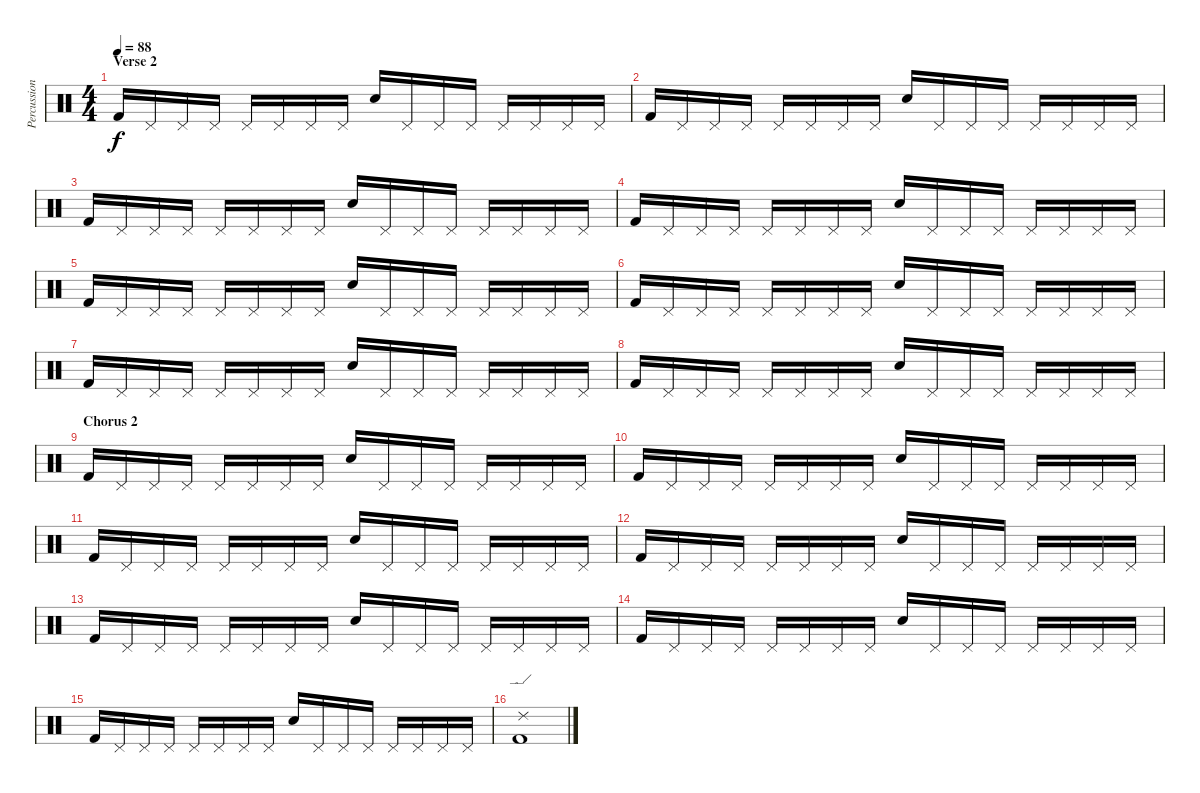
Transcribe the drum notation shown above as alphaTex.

\track ("Percussion" "Percussion") {instrument percussion}
\staff {score}
\articulation defaults
\ts (4 4)
\section ("" "Verse 2")
\tempo 88
\clef neutral
\ks c "Kick (hit) 2".16{dy f} "Pedal Hi-Hat (hit)".16 "Pedal Hi-Hat (hit)".16 "Pedal Hi-Hat (hit)".16 "Pedal Hi-Hat (hit)".16 "Pedal Hi-Hat (hit)".16 "Pedal Hi-Hat (hit)".16 "Pedal Hi-Hat (hit)".16 "Electric Snare (hit)".16 "Pedal Hi-Hat (hit)".16 "Pedal Hi-Hat (hit)".16 "Pedal Hi-Hat (hit)".16 "Pedal Hi-Hat (hit)".16 "Pedal Hi-Hat (hit)".16 "Pedal Hi-Hat (hit)".16 "Pedal Hi-Hat (hit)".16
|
"Kick (hit) 2".16 "Pedal Hi-Hat (hit)".16 "Pedal Hi-Hat (hit)".16 "Pedal Hi-Hat (hit)".16 "Pedal Hi-Hat (hit)".16 "Pedal Hi-Hat (hit)".16 "Pedal Hi-Hat (hit)".16 "Pedal Hi-Hat (hit)".16 "Electric Snare (hit)".16 "Pedal Hi-Hat (hit)".16 "Pedal Hi-Hat (hit)".16 "Pedal Hi-Hat (hit)".16 "Pedal Hi-Hat (hit)".16 "Pedal Hi-Hat (hit)".16 "Pedal Hi-Hat (hit)".16 "Pedal Hi-Hat (hit)".16 |
"Kick (hit) 2".16 "Pedal Hi-Hat (hit)".16 "Pedal Hi-Hat (hit)".16 "Pedal Hi-Hat (hit)".16 "Pedal Hi-Hat (hit)".16 "Pedal Hi-Hat (hit)".16 "Pedal Hi-Hat (hit)".16 "Pedal Hi-Hat (hit)".16 "Electric Snare (hit)".16 "Pedal Hi-Hat (hit)".16 "Pedal Hi-Hat (hit)".16 "Pedal Hi-Hat (hit)".16 "Pedal Hi-Hat (hit)".16 "Pedal Hi-Hat (hit)".16 "Pedal Hi-Hat (hit)".16 "Pedal Hi-Hat (hit)".16 |
"Kick (hit) 2".16 "Pedal Hi-Hat (hit)".16 "Pedal Hi-Hat (hit)".16 "Pedal Hi-Hat (hit)".16 "Pedal Hi-Hat (hit)".16 "Pedal Hi-Hat (hit)".16 "Pedal Hi-Hat (hit)".16 "Pedal Hi-Hat (hit)".16 "Electric Snare (hit)".16 "Pedal Hi-Hat (hit)".16 "Pedal Hi-Hat (hit)".16 "Pedal Hi-Hat (hit)".16 "Pedal Hi-Hat (hit)".16 "Pedal Hi-Hat (hit)".16 "Pedal Hi-Hat (hit)".16 "Pedal Hi-Hat (hit)".16 |
"Kick (hit) 2".16 "Pedal Hi-Hat (hit)".16 "Pedal Hi-Hat (hit)".16 "Pedal Hi-Hat (hit)".16 "Pedal Hi-Hat (hit)".16 "Pedal Hi-Hat (hit)".16 "Pedal Hi-Hat (hit)".16 "Pedal Hi-Hat (hit)".16 "Electric Snare (hit)".16 "Pedal Hi-Hat (hit)".16 "Pedal Hi-Hat (hit)".16 "Pedal Hi-Hat (hit)".16 "Pedal Hi-Hat (hit)".16 "Pedal Hi-Hat (hit)".16 "Pedal Hi-Hat (hit)".16 "Pedal Hi-Hat (hit)".16 |
"Kick (hit) 2".16 "Pedal Hi-Hat (hit)".16 "Pedal Hi-Hat (hit)".16 "Pedal Hi-Hat (hit)".16 "Pedal Hi-Hat (hit)".16 "Pedal Hi-Hat (hit)".16 "Pedal Hi-Hat (hit)".16 "Pedal Hi-Hat (hit)".16 "Electric Snare (hit)".16 "Pedal Hi-Hat (hit)".16 "Pedal Hi-Hat (hit)".16 "Pedal Hi-Hat (hit)".16 "Pedal Hi-Hat (hit)".16 "Pedal Hi-Hat (hit)".16 "Pedal Hi-Hat (hit)".16 "Pedal Hi-Hat (hit)".16 |
"Kick (hit) 2".16 "Pedal Hi-Hat (hit)".16 "Pedal Hi-Hat (hit)".16 "Pedal Hi-Hat (hit)".16 "Pedal Hi-Hat (hit)".16 "Pedal Hi-Hat (hit)".16 "Pedal Hi-Hat (hit)".16 "Pedal Hi-Hat (hit)".16 "Electric Snare (hit)".16 "Pedal Hi-Hat (hit)".16 "Pedal Hi-Hat (hit)".16 "Pedal Hi-Hat (hit)".16 "Pedal Hi-Hat (hit)".16 "Pedal Hi-Hat (hit)".16 "Pedal Hi-Hat (hit)".16 "Pedal Hi-Hat (hit)".16 |
"Kick (hit) 2".16 "Pedal Hi-Hat (hit)".16 "Pedal Hi-Hat (hit)".16 "Pedal Hi-Hat (hit)".16 "Pedal Hi-Hat (hit)".16 "Pedal Hi-Hat (hit)".16 "Pedal Hi-Hat (hit)".16 "Pedal Hi-Hat (hit)".16 "Electric Snare (hit)".16 "Pedal Hi-Hat (hit)".16 "Pedal Hi-Hat (hit)".16 "Pedal Hi-Hat (hit)".16 "Pedal Hi-Hat (hit)".16 "Pedal Hi-Hat (hit)".16 "Pedal Hi-Hat (hit)".16 "Pedal Hi-Hat (hit)".16 |
\section ("" "Chorus 2")
"Kick (hit) 2".16 "Pedal Hi-Hat (hit)".16 "Pedal Hi-Hat (hit)".16 "Pedal Hi-Hat (hit)".16 "Pedal Hi-Hat (hit)".16 "Pedal Hi-Hat (hit)".16 "Pedal Hi-Hat (hit)".16 "Pedal Hi-Hat (hit)".16 "Electric Snare (hit)".16 "Pedal Hi-Hat (hit)".16 "Pedal Hi-Hat (hit)".16 "Pedal Hi-Hat (hit)".16 "Pedal Hi-Hat (hit)".16 "Pedal Hi-Hat (hit)".16 "Pedal Hi-Hat (hit)".16 "Pedal Hi-Hat (hit)".16 |
"Kick (hit) 2".16 "Pedal Hi-Hat (hit)".16 "Pedal Hi-Hat (hit)".16 "Pedal Hi-Hat (hit)".16 "Pedal Hi-Hat (hit)".16 "Pedal Hi-Hat (hit)".16 "Pedal Hi-Hat (hit)".16 "Pedal Hi-Hat (hit)".16 "Electric Snare (hit)".16 "Pedal Hi-Hat (hit)".16 "Pedal Hi-Hat (hit)".16 "Pedal Hi-Hat (hit)".16 "Pedal Hi-Hat (hit)".16 "Pedal Hi-Hat (hit)".16 "Pedal Hi-Hat (hit)".16 "Pedal Hi-Hat (hit)".16 |
"Kick (hit) 2".16 "Pedal Hi-Hat (hit)".16 "Pedal Hi-Hat (hit)".16 "Pedal Hi-Hat (hit)".16 "Pedal Hi-Hat (hit)".16 "Pedal Hi-Hat (hit)".16 "Pedal Hi-Hat (hit)".16 "Pedal Hi-Hat (hit)".16 "Electric Snare (hit)".16 "Pedal Hi-Hat (hit)".16 "Pedal Hi-Hat (hit)".16 "Pedal Hi-Hat (hit)".16 "Pedal Hi-Hat (hit)".16 "Pedal Hi-Hat (hit)".16 "Pedal Hi-Hat (hit)".16 "Pedal Hi-Hat (hit)".16 |
"Kick (hit) 2".16 "Pedal Hi-Hat (hit)".16 "Pedal Hi-Hat (hit)".16 "Pedal Hi-Hat (hit)".16 "Pedal Hi-Hat (hit)".16 "Pedal Hi-Hat (hit)".16 "Pedal Hi-Hat (hit)".16 "Pedal Hi-Hat (hit)".16 "Electric Snare (hit)".16 "Pedal Hi-Hat (hit)".16 "Pedal Hi-Hat (hit)".16 "Pedal Hi-Hat (hit)".16 "Pedal Hi-Hat (hit)".16 "Pedal Hi-Hat (hit)".16 "Pedal Hi-Hat (hit)".16 "Pedal Hi-Hat (hit)".16 |
"Kick (hit) 2".16 "Pedal Hi-Hat (hit)".16 "Pedal Hi-Hat (hit)".16 "Pedal Hi-Hat (hit)".16 "Pedal Hi-Hat (hit)".16 "Pedal Hi-Hat (hit)".16 "Pedal Hi-Hat (hit)".16 "Pedal Hi-Hat (hit)".16 "Electric Snare (hit)".16 "Pedal Hi-Hat (hit)".16 "Pedal Hi-Hat (hit)".16 "Pedal Hi-Hat (hit)".16 "Pedal Hi-Hat (hit)".16 "Pedal Hi-Hat (hit)".16 "Pedal Hi-Hat (hit)".16 "Pedal Hi-Hat (hit)".16 |
"Kick (hit) 2".16 "Pedal Hi-Hat (hit)".16 "Pedal Hi-Hat (hit)".16 "Pedal Hi-Hat (hit)".16 "Pedal Hi-Hat (hit)".16 "Pedal Hi-Hat (hit)".16 "Pedal Hi-Hat (hit)".16 "Pedal Hi-Hat (hit)".16 "Electric Snare (hit)".16 "Pedal Hi-Hat (hit)".16 "Pedal Hi-Hat (hit)".16 "Pedal Hi-Hat (hit)".16 "Pedal Hi-Hat (hit)".16 "Pedal Hi-Hat (hit)".16 "Pedal Hi-Hat (hit)".16 "Pedal Hi-Hat (hit)".16 |
"Kick (hit) 2".16 "Pedal Hi-Hat (hit)".16 "Pedal Hi-Hat (hit)".16 "Pedal Hi-Hat (hit)".16 "Pedal Hi-Hat (hit)".16 "Pedal Hi-Hat (hit)".16 "Pedal Hi-Hat (hit)".16 "Pedal Hi-Hat (hit)".16 "Electric Snare (hit)".16 "Pedal Hi-Hat (hit)".16 "Pedal Hi-Hat (hit)".16 "Pedal Hi-Hat (hit)".16 "Pedal Hi-Hat (hit)".16 "Pedal Hi-Hat (hit)".16 "Pedal Hi-Hat (hit)".16 "Pedal Hi-Hat (hit)".16 |
("Ride (edge) 2" "Kick (hit) 2").1
